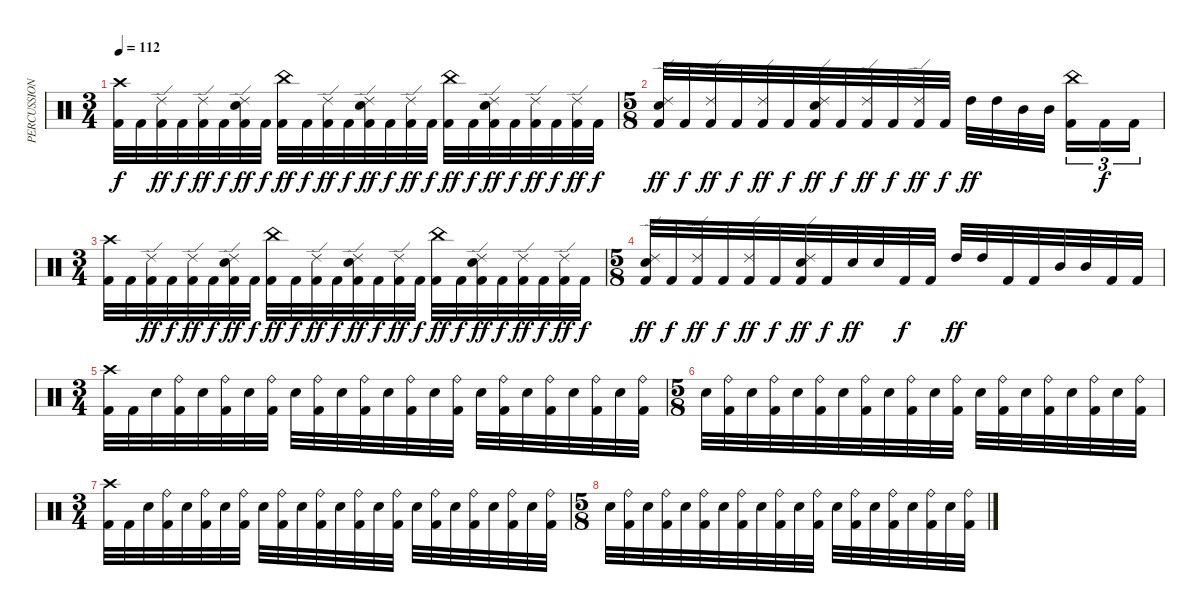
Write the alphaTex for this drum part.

\track ("PERCUSSION" "PERCUSSION") {instrument percussion}
\staff {score}
\articulation defaults
\ts (3 4)
\tempo 112
\clef neutral
\ks c
("Crash high (hit)" "Kick (hit) 2").32{dy f} "Kick (hit) 2".32 ("Ride (edge) 2" "Kick (hit) 2").32{dy ff} "Kick (hit) 2".32{dy f} ("Ride (edge) 2" "Kick (hit) 2").32{dy ff} "Kick (hit) 2".32{dy f} ("Ride (edge) 2" "Electric Snare (hit)" "Kick (hit) 2").32{dy ff} "Kick (hit) 2".32{dy f} ("China (hit)" "Kick (hit) 2").32{dy ff} "Kick (hit) 2".32{dy f} ("Ride (edge) 2" "Kick (hit) 2").32{dy ff} "Kick (hit) 2".32{dy f} ("Ride (edge) 2" "Electric Snare (hit)" "Kick (hit) 2").32{dy ff} "Kick (hit) 2".32{dy f} ("Ride (edge) 2" "Kick (hit) 2").32{dy ff} "Kick (hit) 2".32{dy f} ("China (hit)" "Kick (hit) 2").32{dy ff} "Kick (hit) 2".32{dy f} ("Ride (edge) 2" "Electric Snare (hit)" "Kick (hit) 2").32{dy ff} "Kick (hit) 2".32{dy f} ("Ride (edge) 2" "Kick (hit) 2").32{dy ff} "Kick (hit) 2".32{dy f} ("Ride (edge) 2" "Kick (hit) 2").32{dy ff} "Kick (hit) 2".32{dy f} |
\ts (5 8)
("Ride (edge) 2" "Electric Snare (hit)" "Kick (hit) 2").32{dy ff} "Kick (hit) 2".32{dy f} ("Ride (edge) 2" "Kick (hit) 2").32{dy ff} "Kick (hit) 2".32{dy f} ("Ride (edge) 2" "Kick (hit) 2").32{dy ff} "Kick (hit) 2".32{dy f} ("Ride (edge) 2" "Electric Snare (hit)" "Kick (hit) 2").32{dy ff} "Kick (hit) 2".32{dy f} ("Ride (edge) 2" "Kick (hit) 2").32{dy ff} "Kick (hit) 2".32{dy f} ("Ride (edge) 2" "Kick (hit) 2").32{dy ff} "Kick (hit) 2".32{dy f} "High Tom (hit)".32{dy ff} "High Tom (hit)".32 "Mid Tom (hit)".32 "Mid Tom (hit)".32 ("China (hit)" "Kick (hit) 2").16{tu (3 2)} "Kick (hit) 2".16{tu (3 2) dy f} "Kick (hit) 2".16{tu (3 2)} |
\ts (3 4)
("Crash high (hit)" "Kick (hit) 2").32 "Kick (hit) 2".32 ("Ride (edge) 2" "Kick (hit) 2").32{dy ff} "Kick (hit) 2".32{dy f} ("Ride (edge) 2" "Kick (hit) 2").32{dy ff} "Kick (hit) 2".32{dy f} ("Ride (edge) 2" "Electric Snare (hit)" "Kick (hit) 2").32{dy ff} "Kick (hit) 2".32{dy f} ("China (hit)" "Kick (hit) 2").32{dy ff} "Kick (hit) 2".32{dy f} ("Ride (edge) 2" "Kick (hit) 2").32{dy ff} "Kick (hit) 2".32{dy f} ("Ride (edge) 2" "Electric Snare (hit)" "Kick (hit) 2").32{dy ff} "Kick (hit) 2".32{dy f} ("Ride (edge) 2" "Kick (hit) 2").32{dy ff} "Kick (hit) 2".32{dy f} ("China (hit)" "Kick (hit) 2").32{dy ff} "Kick (hit) 2".32{dy f} ("Ride (edge) 2" "Electric Snare (hit)" "Kick (hit) 2").32{dy ff} "Kick (hit) 2".32{dy f} ("Ride (edge) 2" "Kick (hit) 2").32{dy ff} "Kick (hit) 2".32{dy f} ("Ride (edge) 2" "Kick (hit) 2").32{dy ff} "Kick (hit) 2".32{dy f} |
\ts (5 8)
("Ride (edge) 2" "Electric Snare (hit)" "Kick (hit) 2").32{dy ff} "Kick (hit) 2".32{dy f} ("Ride (edge) 2" "Kick (hit) 2").32{dy ff} "Kick (hit) 2".32{dy f} ("Ride (edge) 2" "Kick (hit) 2").32{dy ff} "Kick (hit) 2".32{dy f} ("Ride (edge) 2" "Electric Snare (hit)" "Kick (hit) 2").32{dy ff} "Kick (hit) 2".32{dy f} "Electric Snare (hit)".32{dy ff} "Electric Snare (hit)".32 "Kick (hit) 2".32{dy f} "Kick (hit) 2".32 "High Tom (hit)".32{dy ff} "High Tom (hit)".32 "Kick (hit) 2".32 "Kick (hit) 2".32 "Mid Tom (hit)".32 "Mid Tom (hit)".32 "Kick (hit) 2".32 "Kick (hit) 2".32 |
\ts (3 4)
("Crash high (hit)" "Kick (hit) 2").32 "Kick (hit) 2".32 "Electric Snare (hit)".32 ("Ride (bell)" "Kick (hit) 2").32 "Electric Snare (hit)".32 ("Ride (bell)" "Kick (hit) 2").32 "Electric Snare (hit)".32 ("Ride (bell)" "Kick (hit) 2").32 "Electric Snare (hit)".32 ("Ride (bell)" "Kick (hit) 2").32 "Electric Snare (hit)".32 ("Ride (bell)" "Kick (hit) 2").32 "Electric Snare (hit)".32 ("Ride (bell)" "Kick (hit) 2").32 "Electric Snare (hit)".32 ("Ride (bell)" "Kick (hit) 2").32 "Electric Snare (hit)".32 ("Ride (bell)" "Kick (hit) 2").32 "Electric Snare (hit)".32 ("Ride (bell)" "Kick (hit) 2").32 "Electric Snare (hit)".32 ("Ride (bell)" "Kick (hit) 2").32 "Electric Snare (hit)".32 ("Ride (bell)" "Kick (hit) 2").32 |
\ts (5 8)
"Electric Snare (hit)".32 ("Ride (bell)" "Kick (hit) 2").32 "Electric Snare (hit)".32 ("Ride (bell)" "Kick (hit) 2").32 "Electric Snare (hit)".32 ("Ride (bell)" "Kick (hit) 2").32 "Electric Snare (hit)".32 ("Ride (bell)" "Kick (hit) 2").32 "Electric Snare (hit)".32 ("Ride (bell)" "Kick (hit) 2").32 "Electric Snare (hit)".32 ("Ride (bell)" "Kick (hit) 2").32 "Electric Snare (hit)".32 ("Ride (bell)" "Kick (hit) 2").32 "Electric Snare (hit)".32 ("Ride (bell)" "Kick (hit) 2").32 "Electric Snare (hit)".32 ("Ride (bell)" "Kick (hit) 2").32 "Electric Snare (hit)".32 ("Ride (bell)" "Kick (hit) 2").32 |
\ts (3 4)
("Crash high (hit)" "Kick (hit) 2").32 "Kick (hit) 2".32 "Electric Snare (hit)".32 ("Ride (bell)" "Kick (hit) 2").32 "Electric Snare (hit)".32 ("Ride (bell)" "Kick (hit) 2").32 "Electric Snare (hit)".32 ("Ride (bell)" "Kick (hit) 2").32 "Electric Snare (hit)".32 ("Ride (bell)" "Kick (hit) 2").32 "Electric Snare (hit)".32 ("Ride (bell)" "Kick (hit) 2").32 "Electric Snare (hit)".32 ("Ride (bell)" "Kick (hit) 2").32 "Electric Snare (hit)".32 ("Ride (bell)" "Kick (hit) 2").32 "Electric Snare (hit)".32 ("Ride (bell)" "Kick (hit) 2").32 "Electric Snare (hit)".32 ("Ride (bell)" "Kick (hit) 2").32 "Electric Snare (hit)".32 ("Ride (bell)" "Kick (hit) 2").32 "Electric Snare (hit)".32 ("Ride (bell)" "Kick (hit) 2").32 |
\ts (5 8)
"Electric Snare (hit)".32 ("Ride (bell)" "Kick (hit) 2").32 "Electric Snare (hit)".32 ("Ride (bell)" "Kick (hit) 2").32 "Electric Snare (hit)".32 ("Ride (bell)" "Kick (hit) 2").32 "Electric Snare (hit)".32 ("Ride (bell)" "Kick (hit) 2").32 "Electric Snare (hit)".32 ("Ride (bell)" "Kick (hit) 2").32 "Electric Snare (hit)".32 ("Ride (bell)" "Kick (hit) 2").32 "Electric Snare (hit)".32 ("Ride (bell)" "Kick (hit) 2").32 "Electric Snare (hit)".32 ("Ride (bell)" "Kick (hit) 2").32 "Electric Snare (hit)".32 ("Ride (bell)" "Kick (hit) 2").32 "Electric Snare (hit)".32 ("Ride (bell)" "Kick (hit) 2").32
